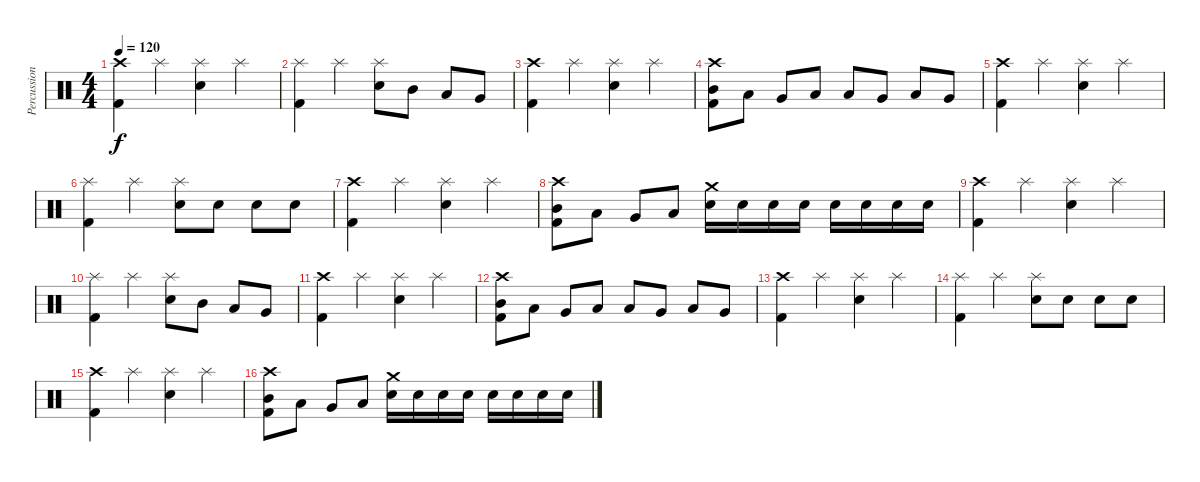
\track ("Percussion" "Percussion") {instrument percussion}
\staff {score}
\articulation defaults
\ts (4 4)
\tempo 120
\clef neutral
\ks c
("Crash high (hit)" "Kick (hit) 2").4{dy f} "Splash (hit)".4 ("Splash (hit)" "Electric Snare (hit)").4 "Splash (hit)".4 |
("Splash (hit)" "Kick (hit) 2").4 "Splash (hit)".4 ("Splash (hit)" "Electric Snare (hit)").8 "Mid Tom (hit)".8 "Low Tom (hit)".8 "Very Low Tom (hit)".8 |
("Crash high (hit)" "Kick (hit) 2").4 "Splash (hit)".4 ("Splash (hit)" "Electric Snare (hit)").4 "Splash (hit)".4 |
("Crash high (hit)" "Mid Tom (hit)" "Kick (hit) 2").8 "Low Tom (hit)".8 "Very Low Tom (hit)".8 "Low Tom (hit)".8 "Low Tom (hit)".8 "Very Low Tom (hit)".8 "Low Floor Tom (hit)".8 "Very Low Tom (hit)".8 |
("Crash high (hit)" "Kick (hit) 2").4 "Splash (hit)".4 ("Splash (hit)" "Electric Snare (hit)").4 "Splash (hit)".4 |
("Splash (hit)" "Kick (hit) 2").4 "Splash (hit)".4 ("Splash (hit)" "Electric Snare (hit)").8 "Electric Snare (hit)".8 "Electric Snare (hit)".8 "Electric Snare (hit)".8 |
("Crash high (hit)" "Kick (hit) 2").4 "Splash (hit)".4 ("Splash (hit)" "Electric Snare (hit)").4 "Splash (hit)".4 |
("Crash high (hit)" "Mid Tom (hit)" "Kick (hit) 2").8 "Low Tom (hit)".8 "Very Low Tom (hit)".8 "Low Tom (hit)".8 ("Crash medium (hit)" "Electric Snare (hit)").16 "Electric Snare (hit)".16 "Electric Snare (hit)".16 "Electric Snare (hit)".16 "Electric Snare (hit)".16 "Electric Snare (hit)".16 "Electric Snare (hit)".16 "Electric Snare (hit)".16 |
("Crash high (hit)" "Kick (hit) 2").4 "Splash (hit)".4 ("Splash (hit)" "Electric Snare (hit)").4 "Splash (hit)".4 |
("Splash (hit)" "Kick (hit) 2").4 "Splash (hit)".4 ("Splash (hit)" "Electric Snare (hit)").8 "Mid Tom (hit)".8 "Low Tom (hit)".8 "Very Low Tom (hit)".8 |
("Crash high (hit)" "Kick (hit) 2").4 "Splash (hit)".4 ("Splash (hit)" "Electric Snare (hit)").4 "Splash (hit)".4 |
("Crash high (hit)" "Mid Tom (hit)" "Kick (hit) 2").8 "Low Tom (hit)".8 "Very Low Tom (hit)".8 "Low Tom (hit)".8 "Low Tom (hit)".8 "Very Low Tom (hit)".8 "Low Floor Tom (hit)".8 "Very Low Tom (hit)".8 |
("Crash high (hit)" "Kick (hit) 2").4 "Splash (hit)".4 ("Splash (hit)" "Electric Snare (hit)").4 "Splash (hit)".4 |
("Splash (hit)" "Kick (hit) 2").4 "Splash (hit)".4 ("Splash (hit)" "Electric Snare (hit)").8 "Electric Snare (hit)".8 "Electric Snare (hit)".8 "Electric Snare (hit)".8 |
("Crash high (hit)" "Kick (hit) 2").4 "Splash (hit)".4 ("Splash (hit)" "Electric Snare (hit)").4 "Splash (hit)".4 |
("Crash high (hit)" "Mid Tom (hit)" "Kick (hit) 2").8 "Low Tom (hit)".8 "Very Low Tom (hit)".8 "Low Tom (hit)".8 ("Crash medium (hit)" "Electric Snare (hit)").16 "Electric Snare (hit)".16 "Electric Snare (hit)".16 "Electric Snare (hit)".16 "Electric Snare (hit)".16 "Electric Snare (hit)".16 "Electric Snare (hit)".16 "Electric Snare (hit)".16
